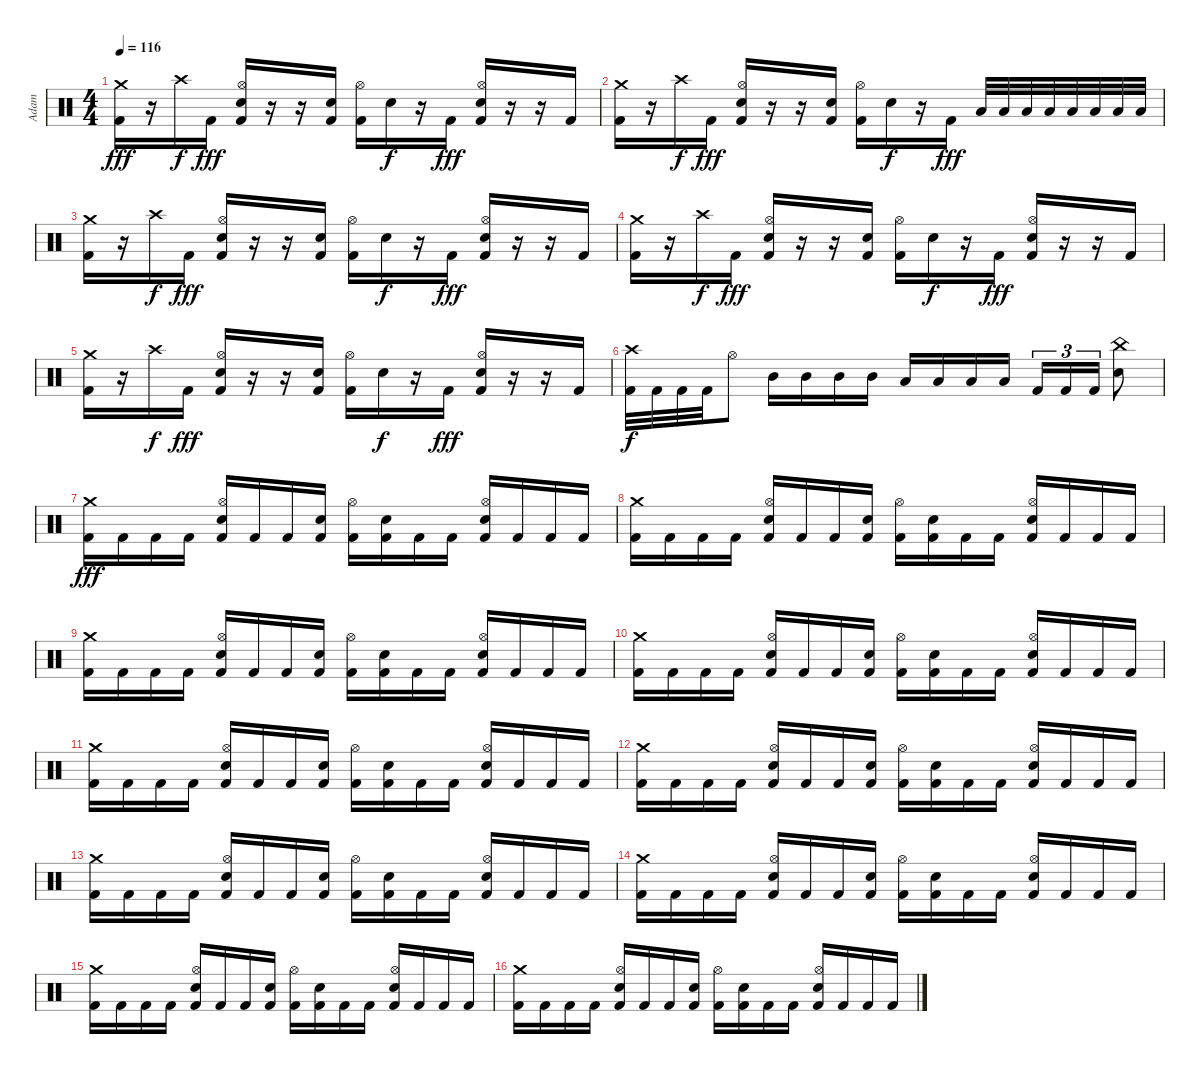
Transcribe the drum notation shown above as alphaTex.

\track ("Adam" "Adam") {instrument percussion}
\staff {score}
\articulation defaults
\ts (4 4)
\tempo 116
\clef neutral
\ks c
("Crash medium (hit)" "Kick (hit) 2").16{dy fff} r.16 "Crash high (hit)".16{dy f} "Kick (hit) 2".16{dy fff} ("Hi-Hat (open)" "Electric Snare (hit)" "Kick (hit) 2").16 r.16 r.16 ("Electric Snare (hit)" "Kick (hit) 2").16 ("Hi-Hat (open)" "Kick (hit) 2").16 "Electric Snare (hit)".16{dy f} r.16 "Kick (hit) 2".16{dy fff} ("Hi-Hat (open)" "Electric Snare (hit)" "Kick (hit) 2").16 r.16 r.16 "Kick (hit) 2".16 |
("Crash medium (hit)" "Kick (hit) 2").16 r.16 "Crash high (hit)".16{dy f} "Kick (hit) 2".16{dy fff} ("Hi-Hat (open)" "Electric Snare (hit)" "Kick (hit) 2").16 r.16 r.16 ("Electric Snare (hit)" "Kick (hit) 2").16 ("Hi-Hat (open)" "Kick (hit) 2").16 "Electric Snare (hit)".16{dy f} r.16 "Kick (hit) 2".16{dy fff} "Low Tom (hit)".32 "Low Tom (hit)".32 "Low Tom (hit)".32 "Low Tom (hit)".32 "Low Tom (hit)".32 "Low Tom (hit)".32 "Low Tom (hit)".32 "Low Tom (hit)".32 |
("Crash medium (hit)" "Kick (hit) 2").16 r.16 "Crash high (hit)".16{dy f} "Kick (hit) 2".16{dy fff} ("Hi-Hat (open)" "Electric Snare (hit)" "Kick (hit) 2").16 r.16 r.16 ("Electric Snare (hit)" "Kick (hit) 2").16 ("Hi-Hat (open)" "Kick (hit) 2").16 "Electric Snare (hit)".16{dy f} r.16 "Kick (hit) 2".16{dy fff} ("Hi-Hat (open)" "Electric Snare (hit)" "Kick (hit) 2").16 r.16 r.16 "Kick (hit) 2".16 |
("Crash medium (hit)" "Kick (hit) 2").16 r.16 "Crash high (hit)".16{dy f} "Kick (hit) 2".16{dy fff} ("Hi-Hat (open)" "Electric Snare (hit)" "Kick (hit) 2").16 r.16 r.16 ("Electric Snare (hit)" "Kick (hit) 2").16 ("Hi-Hat (open)" "Kick (hit) 2").16 "Electric Snare (hit)".16{dy f} r.16 "Kick (hit) 2".16{dy fff} ("Hi-Hat (open)" "Electric Snare (hit)" "Kick (hit) 2").16 r.16 r.16 "Kick (hit) 2".16 |
("Crash medium (hit)" "Kick (hit) 2").16 r.16 "Crash high (hit)".16{dy f} "Kick (hit) 2".16{dy fff} ("Hi-Hat (open)" "Electric Snare (hit)" "Kick (hit) 2").16 r.16 r.16 ("Electric Snare (hit)" "Kick (hit) 2").16 ("Hi-Hat (open)" "Kick (hit) 2").16 "Electric Snare (hit)".16{dy f} r.16 "Kick (hit) 2".16{dy fff} ("Hi-Hat (open)" "Electric Snare (hit)" "Kick (hit) 2").16 r.16 r.16 "Kick (hit) 2".16 |
("Crash high (hit)" "Kick (hit) 2").32{dy f} "Kick (hit) 2".32 "Kick (hit) 2".32 "Kick (hit) 2".32 "Hi-Hat (open)".8 "Mid Tom (hit)".16 "Mid Tom (hit)".16 "Mid Tom (hit)".16 "Mid Tom (hit)".16 "Low Tom (hit)".16 "Low Tom (hit)".16 "Low Tom (hit)".16 "Low Tom (hit)".16 "Kick (hit) 2".16{tu (3 2)} "Kick (hit) 2".16{tu (3 2)} "Kick (hit) 2".16{tu (3 2)} ("China (hit)" "Electric Snare (hit)").8 |
("Crash medium (hit)" "Kick (hit) 2").16{dy fff} "Kick (hit) 2".16 "Kick (hit) 2".16 "Kick (hit) 2".16 ("Hi-Hat (open)" "Electric Snare (hit)" "Kick (hit) 2").16 "Kick (hit) 2".16 "Kick (hit) 2".16 ("Electric Snare (hit)" "Kick (hit) 2").16 ("Hi-Hat (open)" "Kick (hit) 2").16 ("Electric Snare (hit)" "Kick (hit) 2").16 "Kick (hit) 2".16 "Kick (hit) 2".16 ("Hi-Hat (open)" "Electric Snare (hit)" "Kick (hit) 2").16 "Kick (hit) 2".16 "Kick (hit) 2".16 "Kick (hit) 2".16 |
("Crash medium (hit)" "Kick (hit) 2").16 "Kick (hit) 2".16 "Kick (hit) 2".16 "Kick (hit) 2".16 ("Hi-Hat (open)" "Electric Snare (hit)" "Kick (hit) 2").16 "Kick (hit) 2".16 "Kick (hit) 2".16 ("Electric Snare (hit)" "Kick (hit) 2").16 ("Hi-Hat (open)" "Kick (hit) 2").16 ("Electric Snare (hit)" "Kick (hit) 2").16 "Kick (hit) 2".16 "Kick (hit) 2".16 ("Hi-Hat (open)" "Electric Snare (hit)" "Kick (hit) 2").16 "Kick (hit) 2".16 "Kick (hit) 2".16 "Kick (hit) 2".16 |
("Crash medium (hit)" "Kick (hit) 2").16 "Kick (hit) 2".16 "Kick (hit) 2".16 "Kick (hit) 2".16 ("Hi-Hat (open)" "Electric Snare (hit)" "Kick (hit) 2").16 "Kick (hit) 2".16 "Kick (hit) 2".16 ("Electric Snare (hit)" "Kick (hit) 2").16 ("Hi-Hat (open)" "Kick (hit) 2").16 ("Electric Snare (hit)" "Kick (hit) 2").16 "Kick (hit) 2".16 "Kick (hit) 2".16 ("Hi-Hat (open)" "Electric Snare (hit)" "Kick (hit) 2").16 "Kick (hit) 2".16 "Kick (hit) 2".16 "Kick (hit) 2".16 |
("Crash medium (hit)" "Kick (hit) 2").16 "Kick (hit) 2".16 "Kick (hit) 2".16 "Kick (hit) 2".16 ("Hi-Hat (open)" "Electric Snare (hit)" "Kick (hit) 2").16 "Kick (hit) 2".16 "Kick (hit) 2".16 ("Electric Snare (hit)" "Kick (hit) 2").16 ("Hi-Hat (open)" "Kick (hit) 2").16 ("Electric Snare (hit)" "Kick (hit) 2").16 "Kick (hit) 2".16 "Kick (hit) 2".16 ("Hi-Hat (open)" "Electric Snare (hit)" "Kick (hit) 2").16 "Kick (hit) 2".16 "Kick (hit) 2".16 "Kick (hit) 2".16 |
("Crash medium (hit)" "Kick (hit) 2").16 "Kick (hit) 2".16 "Kick (hit) 2".16 "Kick (hit) 2".16 ("Hi-Hat (open)" "Electric Snare (hit)" "Kick (hit) 2").16 "Kick (hit) 2".16 "Kick (hit) 2".16 ("Electric Snare (hit)" "Kick (hit) 2").16 ("Hi-Hat (open)" "Kick (hit) 2").16 ("Electric Snare (hit)" "Kick (hit) 2").16 "Kick (hit) 2".16 "Kick (hit) 2".16 ("Hi-Hat (open)" "Electric Snare (hit)" "Kick (hit) 2").16 "Kick (hit) 2".16 "Kick (hit) 2".16 "Kick (hit) 2".16 |
("Crash medium (hit)" "Kick (hit) 2").16 "Kick (hit) 2".16 "Kick (hit) 2".16 "Kick (hit) 2".16 ("Hi-Hat (open)" "Electric Snare (hit)" "Kick (hit) 2").16 "Kick (hit) 2".16 "Kick (hit) 2".16 ("Electric Snare (hit)" "Kick (hit) 2").16 ("Hi-Hat (open)" "Kick (hit) 2").16 ("Electric Snare (hit)" "Kick (hit) 2").16 "Kick (hit) 2".16 "Kick (hit) 2".16 ("Hi-Hat (open)" "Electric Snare (hit)" "Kick (hit) 2").16 "Kick (hit) 2".16 "Kick (hit) 2".16 "Kick (hit) 2".16 |
("Crash medium (hit)" "Kick (hit) 2").16 "Kick (hit) 2".16 "Kick (hit) 2".16 "Kick (hit) 2".16 ("Hi-Hat (open)" "Electric Snare (hit)" "Kick (hit) 2").16 "Kick (hit) 2".16 "Kick (hit) 2".16 ("Electric Snare (hit)" "Kick (hit) 2").16 ("Hi-Hat (open)" "Kick (hit) 2").16 ("Electric Snare (hit)" "Kick (hit) 2").16 "Kick (hit) 2".16 "Kick (hit) 2".16 ("Hi-Hat (open)" "Electric Snare (hit)" "Kick (hit) 2").16 "Kick (hit) 2".16 "Kick (hit) 2".16 "Kick (hit) 2".16 |
("Crash medium (hit)" "Kick (hit) 2").16 "Kick (hit) 2".16 "Kick (hit) 2".16 "Kick (hit) 2".16 ("Hi-Hat (open)" "Electric Snare (hit)" "Kick (hit) 2").16 "Kick (hit) 2".16 "Kick (hit) 2".16 ("Electric Snare (hit)" "Kick (hit) 2").16 ("Hi-Hat (open)" "Kick (hit) 2").16 ("Electric Snare (hit)" "Kick (hit) 2").16 "Kick (hit) 2".16 "Kick (hit) 2".16 ("Hi-Hat (open)" "Electric Snare (hit)" "Kick (hit) 2").16 "Kick (hit) 2".16 "Kick (hit) 2".16 "Kick (hit) 2".16 |
("Crash medium (hit)" "Kick (hit) 2").16 "Kick (hit) 2".16 "Kick (hit) 2".16 "Kick (hit) 2".16 ("Hi-Hat (open)" "Electric Snare (hit)" "Kick (hit) 2").16 "Kick (hit) 2".16 "Kick (hit) 2".16 ("Electric Snare (hit)" "Kick (hit) 2").16 ("Hi-Hat (open)" "Kick (hit) 2").16 ("Electric Snare (hit)" "Kick (hit) 2").16 "Kick (hit) 2".16 "Kick (hit) 2".16 ("Hi-Hat (open)" "Electric Snare (hit)" "Kick (hit) 2").16 "Kick (hit) 2".16 "Kick (hit) 2".16 "Kick (hit) 2".16 |
("Crash medium (hit)" "Kick (hit) 2").16 "Kick (hit) 2".16 "Kick (hit) 2".16 "Kick (hit) 2".16 ("Hi-Hat (open)" "Electric Snare (hit)" "Kick (hit) 2").16 "Kick (hit) 2".16 "Kick (hit) 2".16 ("Electric Snare (hit)" "Kick (hit) 2").16 ("Hi-Hat (open)" "Kick (hit) 2").16 ("Electric Snare (hit)" "Kick (hit) 2").16 "Kick (hit) 2".16 "Kick (hit) 2".16 ("Hi-Hat (open)" "Electric Snare (hit)" "Kick (hit) 2").16 "Kick (hit) 2".16 "Kick (hit) 2".16 "Kick (hit) 2".16
